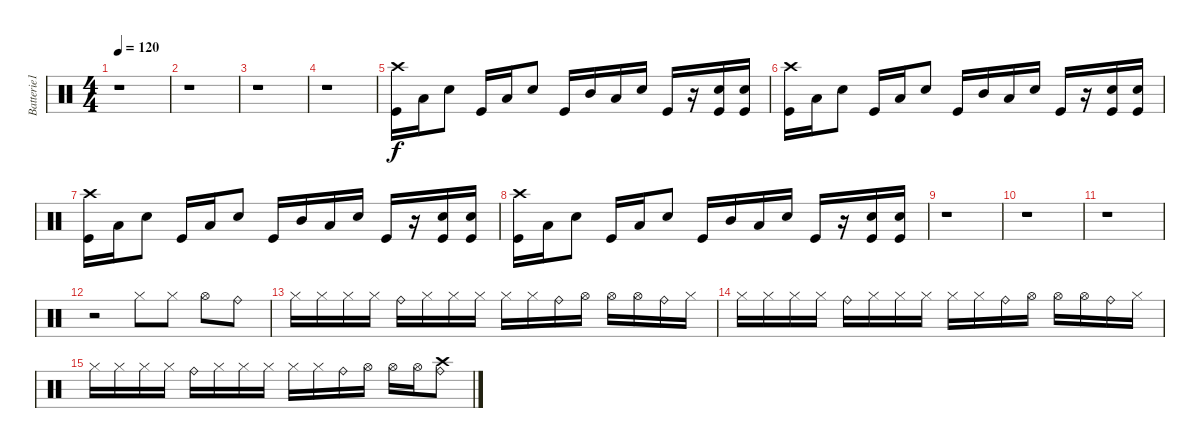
\track ("Batterie1" "Batterie1") {instrument percussion}
\staff {score}
\articulation defaults
\ts (4 4)
\tempo 120
\clef neutral
\ks c
r.1{dy f} |
r.1 |
r.1 |
r.1 |
("Crash high (hit)" "Kick (hit)").16 "Low Floor Tom (hit)".16 "Electric Snare (hit)".8 "Kick (hit)".16 "Low Floor Tom (hit)".16 "Electric Snare (hit)".8 "Kick (hit)".16 "Mid Tom (hit)".16 "Low Floor Tom (hit)".16 "Electric Snare (hit)".16 "Kick (hit)".16 r.16 ("Electric Snare (hit)" "Kick (hit)").16 ("Electric Snare (hit)" "Kick (hit)").16 |
("Crash high (hit)" "Kick (hit)").16 "Low Floor Tom (hit)".16 "Electric Snare (hit)".8 "Kick (hit)".16 "Low Floor Tom (hit)".16 "Electric Snare (hit)".8 "Kick (hit)".16 "Mid Tom (hit)".16 "Low Floor Tom (hit)".16 "Electric Snare (hit)".16 "Kick (hit)".16 r.16 ("Electric Snare (hit)" "Kick (hit)").16 ("Electric Snare (hit)" "Kick (hit)").16 |
("Crash high (hit)" "Kick (hit)").16 "Low Floor Tom (hit)".16 "Electric Snare (hit)".8 "Kick (hit)".16 "Low Floor Tom (hit)".16 "Electric Snare (hit)".8 "Kick (hit)".16 "Mid Tom (hit)".16 "Low Floor Tom (hit)".16 "Electric Snare (hit)".16 "Kick (hit)".16 r.16 ("Electric Snare (hit)" "Kick (hit)").16 ("Electric Snare (hit)" "Kick (hit)").16 |
("Crash high (hit)" "Kick (hit)").16 "Low Floor Tom (hit)".16 "Electric Snare (hit)".8 "Kick (hit)".16 "Low Floor Tom (hit)".16 "Electric Snare (hit)".8 "Kick (hit)".16 "Mid Tom (hit)".16 "Low Floor Tom (hit)".16 "Electric Snare (hit)".16 "Kick (hit)".16 r.16 ("Electric Snare (hit)" "Kick (hit)").16 ("Electric Snare (hit)" "Kick (hit)").16 |
r.1 |
r.1 |
r.1 |
r.2 "Hi-Hat (closed)".8 "Hi-Hat (closed)".8 "Hi-Hat (open)".8 "Ride (bell)".8 |
"Hi-Hat (closed)".16 "Hi-Hat (closed)".16 "Hi-Hat (closed)".16 "Hi-Hat (closed)".16 "Ride (bell)".16 "Hi-Hat (closed)".16 "Hi-Hat (closed)".16 "Hi-Hat (closed)".16 "Hi-Hat (closed)".16 "Hi-Hat (closed)".16 "Ride (bell)".16 "Hi-Hat (open)".16 "Hi-Hat (open)".16 "Hi-Hat (open)".16 "Ride (bell)".16 "Hi-Hat (closed)".16 |
"Hi-Hat (closed)".16 "Hi-Hat (closed)".16 "Hi-Hat (closed)".16 "Hi-Hat (closed)".16 "Ride (bell)".16 "Hi-Hat (closed)".16 "Hi-Hat (closed)".16 "Hi-Hat (closed)".16 "Hi-Hat (closed)".16 "Hi-Hat (closed)".16 "Ride (bell)".16 "Hi-Hat (open)".16 "Hi-Hat (open)".16 "Hi-Hat (open)".16 "Ride (bell)".16 "Hi-Hat (closed)".16 |
"Hi-Hat (closed)".16 "Hi-Hat (closed)".16 "Hi-Hat (closed)".16 "Hi-Hat (closed)".16 "Ride (bell)".16 "Hi-Hat (closed)".16 "Hi-Hat (closed)".16 "Hi-Hat (closed)".16 "Hi-Hat (closed)".16 "Hi-Hat (closed)".16 "Ride (bell)".16 "Hi-Hat (open)".16 "Hi-Hat (open)".16 "Hi-Hat (open)".16 ("Ride (bell)" "Crash high (hit)").8
